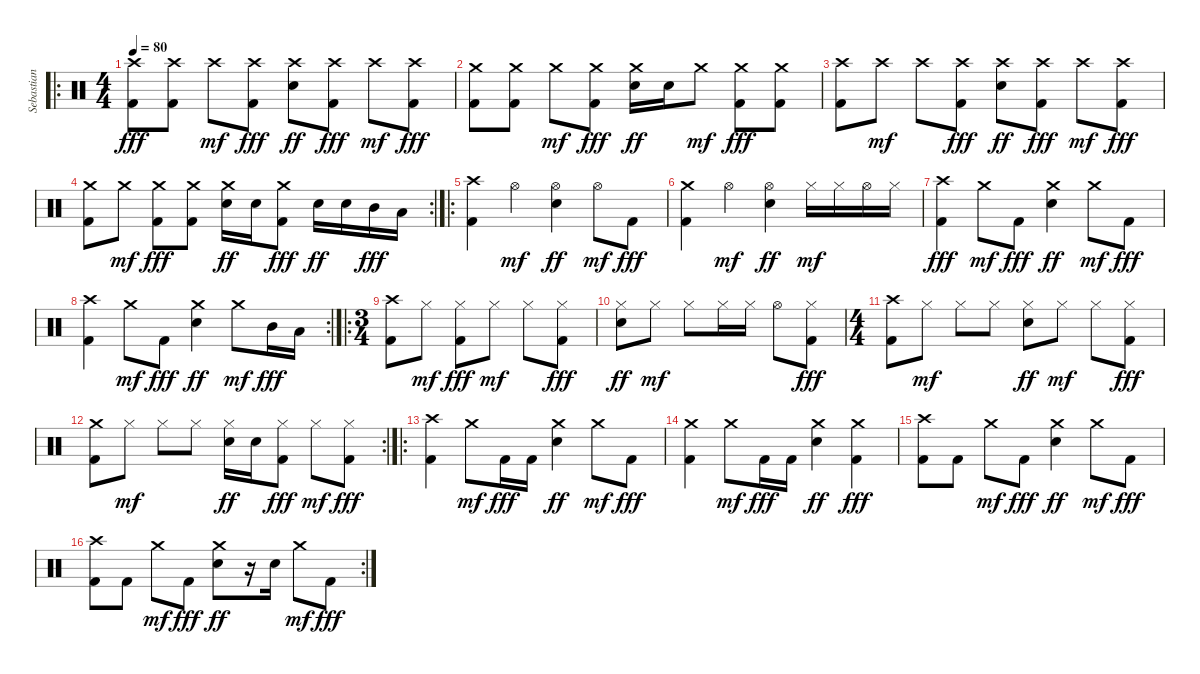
\track ("Sebastian" "Sebastian") {instrument percussion}
\staff {score}
\articulation defaults
\ro
\ts (4 4)
\tempo 80
\clef neutral
\ks c
("Crash high (hit)" "Kick (hit) 2").8{dy fff} ("Crash high (hit)" "Kick (hit) 2").8 "Crash high (hit)".8{dy mf} ("Crash high (hit)" "Kick (hit) 2").8{dy fff} ("Crash high (hit)" "Electric Snare (hit)").8{dy ff} ("Crash high (hit)" "Kick (hit) 2").8{dy fff} "Crash high (hit)".8{dy mf} ("Crash high (hit)" "Kick (hit) 2").8{dy fff} |
("Crash medium (hit)" "Kick (hit) 2").8 ("Crash medium (hit)" "Kick (hit) 2").8 "Crash medium (hit)".8{dy mf} ("Crash medium (hit)" "Kick (hit) 2").8{dy fff} ("Crash medium (hit)" "Electric Snare (hit)").16{dy ff} "Electric Snare (hit)".16 "Crash medium (hit)".8{dy mf} ("Crash medium (hit)" "Kick (hit) 2").8{dy fff} ("Crash medium (hit)" "Kick (hit) 2").8 |
("Crash high (hit)" "Kick (hit) 2").8 "Crash high (hit)".8{dy mf} "Crash high (hit)".8 ("Crash high (hit)" "Kick (hit) 2").8{dy fff} ("Crash high (hit)" "Electric Snare (hit)").8{dy ff} ("Crash high (hit)" "Kick (hit) 2").8{dy fff} "Crash high (hit)".8{dy mf} ("Crash high (hit)" "Kick (hit) 2").8{dy fff} |
\rc 2
("Crash medium (hit)" "Kick (hit) 2").8 "Crash medium (hit)".8{dy mf} ("Crash medium (hit)" "Kick (hit) 2").8{dy fff} ("Crash medium (hit)" "Kick (hit) 2").8 ("Crash medium (hit)" "Electric Snare (hit)").16{dy ff} "Electric Snare (hit)".16 ("Crash medium (hit)" "Kick (hit) 2").8{dy fff} "Electric Snare (hit)".16{dy ff} "Electric Snare (hit)".16 "Mid Tom (hit)".16{dy fff} "Low Tom (hit)".16 |
\ro
("Crash high (hit)" "Kick (hit) 2").4 "Hi-Hat (open)".4{dy mf} ("Hi-Hat (open)" "Electric Snare (hit)").4{dy ff} "Hi-Hat (open)".8{dy mf} "Kick (hit) 2".8{dy fff} |
("Crash medium (hit)" "Kick (hit) 2").4 "Hi-Hat (open)".4{dy mf} ("Hi-Hat (open)" "Electric Snare (hit)").4{dy ff} "Hi-Hat (closed)".16{dy mf} "Hi-Hat (closed)".16 "Hi-Hat (open)".16 "Hi-Hat (closed)".16 |
("Crash high (hit)" "Kick (hit) 2").4{dy fff} "Crash medium (hit)".8{dy mf} "Kick (hit) 2".8{dy fff} ("Crash medium (hit)" "Electric Snare (hit)").4{dy ff} "Crash medium (hit)".8{dy mf} "Kick (hit) 2".8{dy fff} |
\rc 2
("Crash high (hit)" "Kick (hit) 2").4 "Crash medium (hit)".8{dy mf} "Kick (hit) 2".8{dy fff} ("Crash medium (hit)" "Electric Snare (hit)").4{dy ff} "Crash medium (hit)".8{dy mf} "Mid Tom (hit)".16{dy fff} "Low Tom (hit)".16 |
\ro
\ts (3 4)
("Crash high (hit)" "Kick (hit) 2").8 "Hi-Hat (closed)".8{dy mf} ("Hi-Hat (closed)" "Kick (hit) 2").8{dy fff} "Hi-Hat (closed)".8{dy mf} "Hi-Hat (closed)".8 ("Hi-Hat (closed)" "Kick (hit) 2").8{dy fff} |
("Hi-Hat (closed)" "Electric Snare (hit)").8{dy ff} "Hi-Hat (closed)".8{dy mf} "Hi-Hat (closed)".8 "Hi-Hat (closed)".16 "Hi-Hat (closed)".16 "Hi-Hat (open)".8 ("Hi-Hat (closed)" "Kick (hit) 2").8{dy fff} |
\ts (4 4)
("Crash high (hit)" "Kick (hit) 2").8 "Hi-Hat (closed)".8{dy mf} "Hi-Hat (closed)".8 "Hi-Hat (closed)".8 ("Hi-Hat (closed)" "Electric Snare (hit)").8{dy ff} "Hi-Hat (closed)".8{dy mf} "Hi-Hat (closed)".8 ("Hi-Hat (closed)" "Kick (hit) 2").8{dy fff} |
\rc 2
("Crash medium (hit)" "Kick (hit) 2").8 "Hi-Hat (closed)".8{dy mf} "Hi-Hat (closed)".8 "Hi-Hat (closed)".8 ("Hi-Hat (closed)" "Electric Snare (hit)").16{dy ff} "Electric Snare (hit)".16 ("Hi-Hat (closed)" "Kick (hit) 2").8{dy fff} "Hi-Hat (closed)".8{dy mf} ("Hi-Hat (closed)" "Kick (hit) 2").8{dy fff} |
\ro
("Crash high (hit)" "Kick (hit) 2").4 "Crash medium (hit)".8{dy mf} "Kick (hit) 2".16{dy fff} "Kick (hit) 2".16 ("Crash medium (hit)" "Electric Snare (hit)").4{dy ff} "Crash medium (hit)".8{dy mf} "Kick (hit) 2".8{dy fff} |
("Crash medium (hit)" "Kick (hit) 2").4 "Crash medium (hit)".8{dy mf} "Kick (hit) 2".16{dy fff} "Kick (hit) 2".16 ("Crash medium (hit)" "Electric Snare (hit)").4{dy ff} ("Crash medium (hit)" "Kick (hit) 2").4{dy fff} |
("Crash high (hit)" "Kick (hit) 2").8 "Kick (hit) 2".8 "Crash medium (hit)".8{dy mf} "Kick (hit) 2".8{dy fff} ("Crash medium (hit)" "Electric Snare (hit)").4{dy ff} "Crash medium (hit)".8{dy mf} "Kick (hit) 2".8{dy fff} |
\rc 2
("Crash high (hit)" "Kick (hit) 2").8 "Kick (hit) 2".8 "Crash medium (hit)".8{dy mf} "Kick (hit) 2".8{dy fff} ("Crash medium (hit)" "Electric Snare (hit)").8{dy ff} r.16 "Electric Snare (hit)".16 "Crash medium (hit)".8{dy mf} "Kick (hit) 2".8{dy fff}
